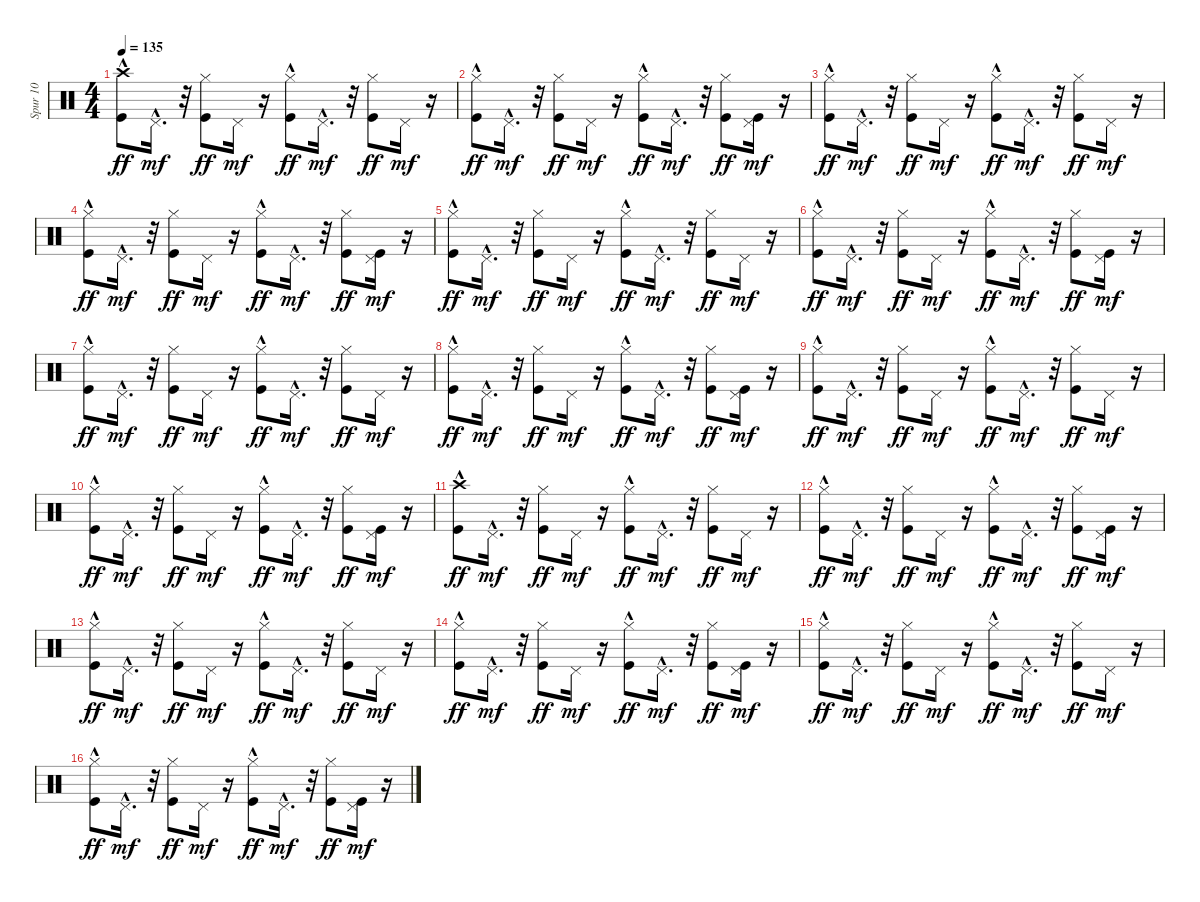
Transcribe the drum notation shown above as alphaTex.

\track ("Spur 10" "Spur 10") {instrument percussion}
\staff {score}
\articulation defaults
\ts (4 4)
\tempo 135
\clef neutral
\ks c
("Crash high (hit)"{hac} "Kick (hit)").8{dy ff} "Pedal Hi-Hat (hit)"{hac}.16{d dy mf} r.32 ("Hi-Hat (closed)" "Kick (hit)").8{dy ff} "Pedal Hi-Hat (hit)".16{dy mf} r.16 ("Hi-Hat (closed)"{hac} "Kick (hit)").8{dy ff} "Pedal Hi-Hat (hit)"{hac}.16{d dy mf} r.32 ("Hi-Hat (closed)" "Kick (hit)").8{dy ff} "Pedal Hi-Hat (hit)".16{dy mf} r.16 |
("Hi-Hat (closed)"{hac} "Kick (hit)").8{dy ff} "Pedal Hi-Hat (hit)"{hac}.16{d dy mf} r.32 ("Hi-Hat (closed)" "Kick (hit)").8{dy ff} "Pedal Hi-Hat (hit)".16{dy mf} r.16 ("Hi-Hat (closed)"{hac} "Kick (hit)").8{dy ff} "Pedal Hi-Hat (hit)"{hac}.16{d dy mf} r.32 ("Hi-Hat (closed)" "Kick (hit)").8{dy ff} ("Kick (hit)" "Pedal Hi-Hat (hit)").16{dy mf} r.16 |
("Hi-Hat (closed)"{hac} "Kick (hit)").8{dy ff} "Pedal Hi-Hat (hit)"{hac}.16{d dy mf} r.32 ("Hi-Hat (closed)" "Kick (hit)").8{dy ff} "Pedal Hi-Hat (hit)".16{dy mf} r.16 ("Hi-Hat (closed)"{hac} "Kick (hit)").8{dy ff} "Pedal Hi-Hat (hit)"{hac}.16{d dy mf} r.32 ("Hi-Hat (closed)" "Kick (hit)").8{dy ff} "Pedal Hi-Hat (hit)".16{dy mf} r.16 |
("Hi-Hat (closed)"{hac} "Kick (hit)").8{dy ff} "Pedal Hi-Hat (hit)"{hac}.16{d dy mf} r.32 ("Hi-Hat (closed)" "Kick (hit)").8{dy ff} "Pedal Hi-Hat (hit)".16{dy mf} r.16 ("Hi-Hat (closed)"{hac} "Kick (hit)").8{dy ff} "Pedal Hi-Hat (hit)"{hac}.16{d dy mf} r.32 ("Hi-Hat (closed)" "Kick (hit)").8{dy ff} ("Kick (hit)" "Pedal Hi-Hat (hit)").16{dy mf} r.16 |
("Hi-Hat (closed)"{hac} "Kick (hit)").8{dy ff} "Pedal Hi-Hat (hit)"{hac}.16{d dy mf} r.32 ("Hi-Hat (closed)" "Kick (hit)").8{dy ff} "Pedal Hi-Hat (hit)".16{dy mf} r.16 ("Hi-Hat (closed)"{hac} "Kick (hit)").8{dy ff} "Pedal Hi-Hat (hit)"{hac}.16{d dy mf} r.32 ("Hi-Hat (closed)" "Kick (hit)").8{dy ff} "Pedal Hi-Hat (hit)".16{dy mf} r.16 |
("Hi-Hat (closed)"{hac} "Kick (hit)").8{dy ff} "Pedal Hi-Hat (hit)"{hac}.16{d dy mf} r.32 ("Hi-Hat (closed)" "Kick (hit)").8{dy ff} "Pedal Hi-Hat (hit)".16{dy mf} r.16 ("Hi-Hat (closed)"{hac} "Kick (hit)").8{dy ff} "Pedal Hi-Hat (hit)"{hac}.16{d dy mf} r.32 ("Hi-Hat (closed)" "Kick (hit)").8{dy ff} ("Kick (hit)" "Pedal Hi-Hat (hit)").16{dy mf} r.16 |
("Hi-Hat (closed)"{hac} "Kick (hit)").8{dy ff} "Pedal Hi-Hat (hit)"{hac}.16{d dy mf} r.32 ("Hi-Hat (closed)" "Kick (hit)").8{dy ff} "Pedal Hi-Hat (hit)".16{dy mf} r.16 ("Hi-Hat (closed)"{hac} "Kick (hit)").8{dy ff} "Pedal Hi-Hat (hit)"{hac}.16{d dy mf} r.32 ("Hi-Hat (closed)" "Kick (hit)").8{dy ff} "Pedal Hi-Hat (hit)".16{dy mf} r.16 |
("Hi-Hat (closed)"{hac} "Kick (hit)").8{dy ff} "Pedal Hi-Hat (hit)"{hac}.16{d dy mf} r.32 ("Hi-Hat (closed)" "Kick (hit)").8{dy ff} "Pedal Hi-Hat (hit)".16{dy mf} r.16 ("Hi-Hat (closed)"{hac} "Kick (hit)").8{dy ff} "Pedal Hi-Hat (hit)"{hac}.16{d dy mf} r.32 ("Hi-Hat (closed)" "Kick (hit)").8{dy ff} ("Kick (hit)" "Pedal Hi-Hat (hit)").16{dy mf} r.16 |
("Hi-Hat (closed)"{hac} "Kick (hit)").8{dy ff} "Pedal Hi-Hat (hit)"{hac}.16{d dy mf} r.32 ("Hi-Hat (closed)" "Kick (hit)").8{dy ff} "Pedal Hi-Hat (hit)".16{dy mf} r.16 ("Hi-Hat (closed)"{hac} "Kick (hit)").8{dy ff} "Pedal Hi-Hat (hit)"{hac}.16{d dy mf} r.32 ("Hi-Hat (closed)" "Kick (hit)").8{dy ff} "Pedal Hi-Hat (hit)".16{dy mf} r.16 |
("Hi-Hat (closed)"{hac} "Kick (hit)").8{dy ff} "Pedal Hi-Hat (hit)"{hac}.16{d dy mf} r.32 ("Hi-Hat (closed)" "Kick (hit)").8{dy ff} "Pedal Hi-Hat (hit)".16{dy mf} r.16 ("Hi-Hat (closed)"{hac} "Kick (hit)").8{dy ff} "Pedal Hi-Hat (hit)"{hac}.16{d dy mf} r.32 ("Hi-Hat (closed)" "Kick (hit)").8{dy ff} ("Kick (hit)" "Pedal Hi-Hat (hit)").16{dy mf} r.16 |
("Crash high (hit)"{hac} "Kick (hit)").8{dy ff} "Pedal Hi-Hat (hit)"{hac}.16{d dy mf} r.32 ("Hi-Hat (closed)" "Kick (hit)").8{dy ff} "Pedal Hi-Hat (hit)".16{dy mf} r.16 ("Hi-Hat (closed)"{hac} "Kick (hit)").8{dy ff} "Pedal Hi-Hat (hit)"{hac}.16{d dy mf} r.32 ("Hi-Hat (closed)" "Kick (hit)").8{dy ff} "Pedal Hi-Hat (hit)".16{dy mf} r.16 |
("Hi-Hat (closed)"{hac} "Kick (hit)").8{dy ff} "Pedal Hi-Hat (hit)"{hac}.16{d dy mf} r.32 ("Hi-Hat (closed)" "Kick (hit)").8{dy ff} "Pedal Hi-Hat (hit)".16{dy mf} r.16 ("Hi-Hat (closed)"{hac} "Kick (hit)").8{dy ff} "Pedal Hi-Hat (hit)"{hac}.16{d dy mf} r.32 ("Hi-Hat (closed)" "Kick (hit)").8{dy ff} ("Kick (hit)" "Pedal Hi-Hat (hit)").16{dy mf} r.16 |
("Hi-Hat (closed)"{hac} "Kick (hit)").8{dy ff} "Pedal Hi-Hat (hit)"{hac}.16{d dy mf} r.32 ("Hi-Hat (closed)" "Kick (hit)").8{dy ff} "Pedal Hi-Hat (hit)".16{dy mf} r.16 ("Hi-Hat (closed)"{hac} "Kick (hit)").8{dy ff} "Pedal Hi-Hat (hit)"{hac}.16{d dy mf} r.32 ("Hi-Hat (closed)" "Kick (hit)").8{dy ff} "Pedal Hi-Hat (hit)".16{dy mf} r.16 |
("Hi-Hat (closed)"{hac} "Kick (hit)").8{dy ff} "Pedal Hi-Hat (hit)"{hac}.16{d dy mf} r.32 ("Hi-Hat (closed)" "Kick (hit)").8{dy ff} "Pedal Hi-Hat (hit)".16{dy mf} r.16 ("Hi-Hat (closed)"{hac} "Kick (hit)").8{dy ff} "Pedal Hi-Hat (hit)"{hac}.16{d dy mf} r.32 ("Hi-Hat (closed)" "Kick (hit)").8{dy ff} ("Kick (hit)" "Pedal Hi-Hat (hit)").16{dy mf} r.16 |
("Hi-Hat (closed)"{hac} "Kick (hit)").8{dy ff} "Pedal Hi-Hat (hit)"{hac}.16{d dy mf} r.32 ("Hi-Hat (closed)" "Kick (hit)").8{dy ff} "Pedal Hi-Hat (hit)".16{dy mf} r.16 ("Hi-Hat (closed)"{hac} "Kick (hit)").8{dy ff} "Pedal Hi-Hat (hit)"{hac}.16{d dy mf} r.32 ("Hi-Hat (closed)" "Kick (hit)").8{dy ff} "Pedal Hi-Hat (hit)".16{dy mf} r.16 |
("Hi-Hat (closed)"{hac} "Kick (hit)").8{dy ff} "Pedal Hi-Hat (hit)"{hac}.16{d dy mf} r.32 ("Hi-Hat (closed)" "Kick (hit)").8{dy ff} "Pedal Hi-Hat (hit)".16{dy mf} r.16 ("Hi-Hat (closed)"{hac} "Kick (hit)").8{dy ff} "Pedal Hi-Hat (hit)"{hac}.16{d dy mf} r.32 ("Hi-Hat (closed)" "Kick (hit)").8{dy ff} ("Kick (hit)" "Pedal Hi-Hat (hit)").16{dy mf} r.16
